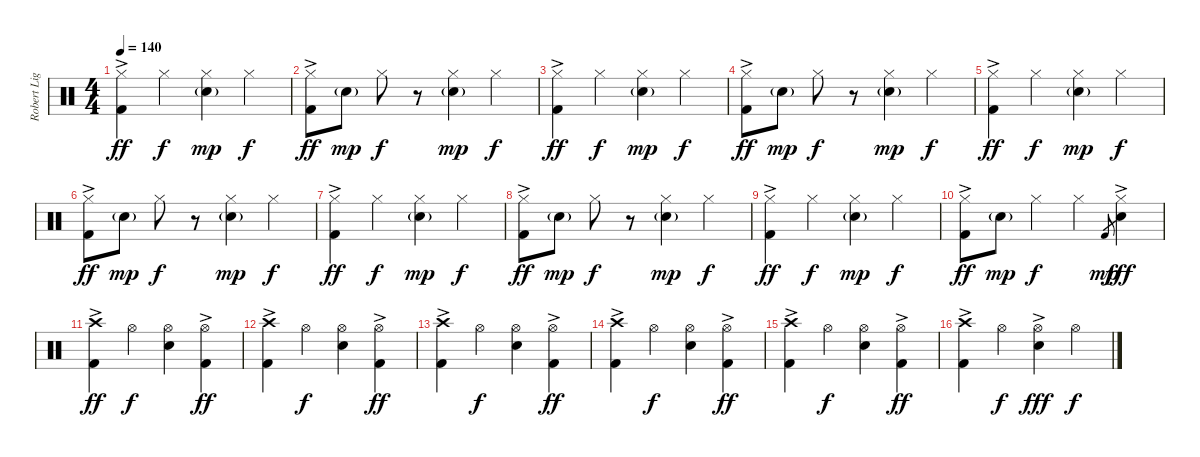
\track ("Robert Ligiewicz (Perkusja)" "Robert Lig") {instrument percussion}
\staff {score}
\articulation defaults
\ts (4 4)
\tempo 140
\clef neutral
\ks c
("Hi-Hat (closed)" "Kick (hit) 2"{ac}).4{dy ff} "Hi-Hat (closed)".4{dy f} ("Hi-Hat (closed)" "Electric Snare (hit)"{g}).4{dy mp} "Hi-Hat (closed)".4{dy f} |
("Hi-Hat (closed)" "Kick (hit) 2"{ac}).8{dy ff} "Electric Snare (hit)"{g}.8{dy mp} "Hi-Hat (closed)".8{dy f} r.8 ("Hi-Hat (closed)" "Electric Snare (hit)"{g}).4{dy mp} "Hi-Hat (closed)".4{dy f} |
("Hi-Hat (closed)" "Kick (hit) 2"{ac}).4{dy ff} "Hi-Hat (closed)".4{dy f} ("Hi-Hat (closed)" "Electric Snare (hit)"{g}).4{dy mp} "Hi-Hat (closed)".4{dy f} |
("Hi-Hat (closed)" "Kick (hit) 2"{ac}).8{dy ff} "Electric Snare (hit)"{g}.8{dy mp} "Hi-Hat (closed)".8{dy f} r.8 ("Hi-Hat (closed)" "Electric Snare (hit)"{g}).4{dy mp} "Hi-Hat (closed)".4{dy f} |
("Hi-Hat (closed)" "Kick (hit) 2"{ac}).4{dy ff} "Hi-Hat (closed)".4{dy f} ("Hi-Hat (closed)" "Electric Snare (hit)"{g}).4{dy mp} "Hi-Hat (closed)".4{dy f} |
("Hi-Hat (closed)" "Kick (hit) 2"{ac}).8{dy ff} "Electric Snare (hit)"{g}.8{dy mp} "Hi-Hat (closed)".8{dy f} r.8 ("Hi-Hat (closed)" "Electric Snare (hit)"{g}).4{dy mp} "Hi-Hat (closed)".4{dy f} |
("Hi-Hat (closed)" "Kick (hit) 2"{ac}).4{dy ff} "Hi-Hat (closed)".4{dy f} ("Hi-Hat (closed)" "Electric Snare (hit)"{g}).4{dy mp} "Hi-Hat (closed)".4{dy f} |
("Hi-Hat (closed)" "Kick (hit) 2"{ac}).8{dy ff} "Electric Snare (hit)"{g}.8{dy mp} "Hi-Hat (closed)".8{dy f} r.8 ("Hi-Hat (closed)" "Electric Snare (hit)"{g}).4{dy mp} "Hi-Hat (closed)".4{dy f} |
("Hi-Hat (closed)" "Kick (hit) 2"{ac}).4{dy ff} "Hi-Hat (closed)".4{dy f} ("Hi-Hat (closed)" "Electric Snare (hit)"{g}).4{dy mp} "Hi-Hat (closed)".4{dy f} |
("Hi-Hat (closed)" "Kick (hit) 2"{ac}).8{dy ff} "Electric Snare (hit)"{g}.8{dy mp} "Hi-Hat (closed)".4{dy f} "Hi-Hat (closed)".4 "Kick (hit) 2".8{gr dy mp} ("Hi-Hat (closed)" "Electric Snare (hit)"{ac}).4{dy fff} |
("Crash high (hit)" "Kick (hit) 2"{ac}).4{dy ff} "Hi-Hat (open)".4{dy f} ("Hi-Hat (open)" "Electric Snare (hit)").4 ("Hi-Hat (open)" "Kick (hit) 2"{ac}).4{dy ff} |
("Crash high (hit)" "Kick (hit) 2"{ac}).4 "Hi-Hat (open)".4{dy f} ("Hi-Hat (open)" "Electric Snare (hit)").4 ("Hi-Hat (open)" "Kick (hit) 2"{ac}).4{dy ff} |
("Crash high (hit)" "Kick (hit) 2"{ac}).4 "Hi-Hat (open)".4{dy f} ("Hi-Hat (open)" "Electric Snare (hit)").4 ("Hi-Hat (open)" "Kick (hit) 2"{ac}).4{dy ff} |
("Crash high (hit)" "Kick (hit) 2"{ac}).4 "Hi-Hat (open)".4{dy f} ("Hi-Hat (open)" "Electric Snare (hit)").4 ("Hi-Hat (open)" "Kick (hit) 2"{ac}).4{dy ff} |
("Crash high (hit)" "Kick (hit) 2"{ac}).4 "Hi-Hat (open)".4{dy f} ("Hi-Hat (open)" "Electric Snare (hit)").4 ("Hi-Hat (open)" "Kick (hit) 2"{ac}).4{dy ff} |
("Crash high (hit)" "Kick (hit) 2"{ac}).4 "Hi-Hat (open)".4{dy f} ("Hi-Hat (open)" "Electric Snare (hit)"{ac}).4{dy fff} "Hi-Hat (open)".4{dy f}
